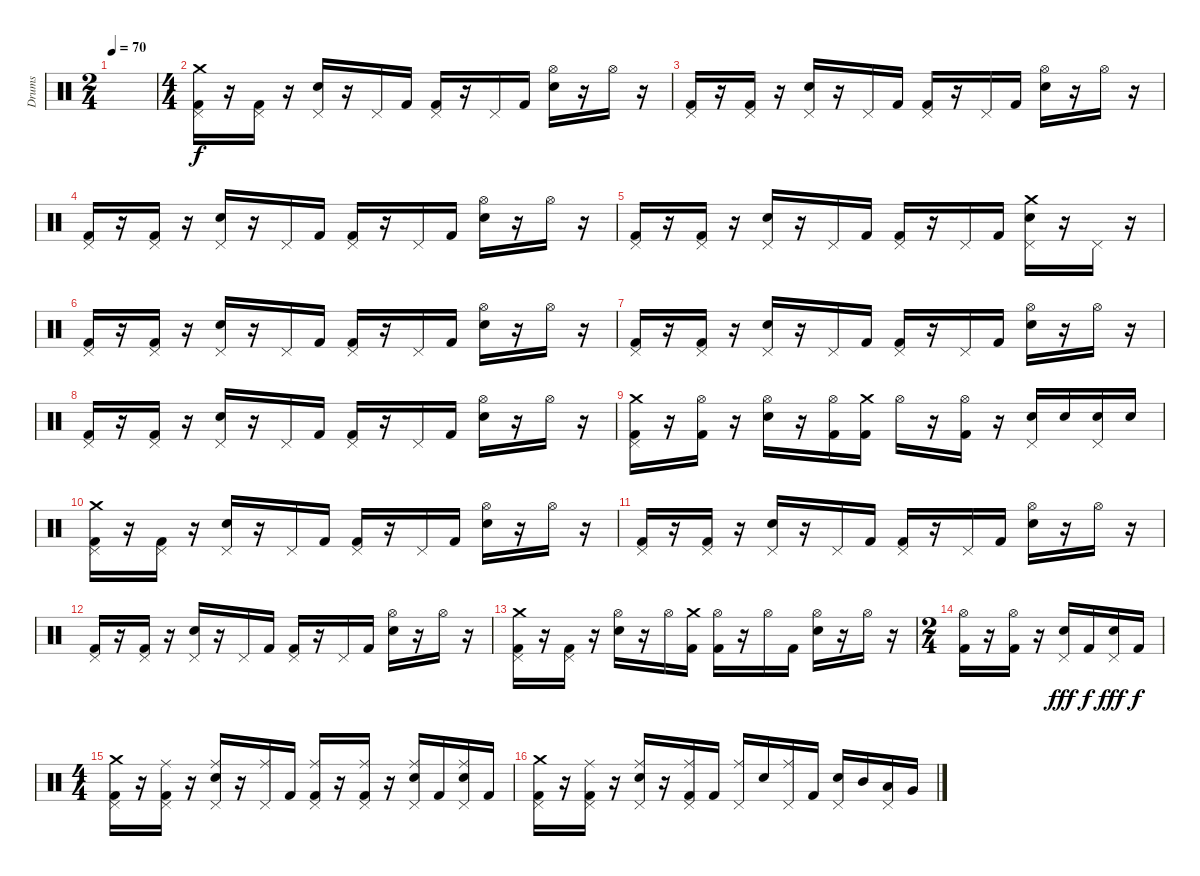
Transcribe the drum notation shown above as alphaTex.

\track ("Drums" "Drums") {instrument percussion}
\staff {score}
\articulation defaults
\ts (2 4)
\tempo 70
\clef neutral
\ks c
|
\ts (4 4)
("Crash medium (hit)" "Pedal Hi-Hat (hit)" "Kick (hit) 2").16 r.16 ("Pedal Hi-Hat (hit)" "Kick (hit) 2").16 r.16 ("Pedal Hi-Hat (hit)" "Snare (hit) 2").16 r.16 "Pedal Hi-Hat (hit)".16 "Kick (hit) 2".16 ("Pedal Hi-Hat (hit)" "Kick (hit) 2").16 r.16 "Pedal Hi-Hat (hit)".16 "Kick (hit) 2".16 ("Hi-Hat (open)" "Snare (hit) 2").16 r.16 "Hi-Hat (open)".16 r.16 |
("Pedal Hi-Hat (hit)" "Kick (hit) 2").16 r.16 ("Pedal Hi-Hat (hit)" "Kick (hit) 2").16 r.16 ("Pedal Hi-Hat (hit)" "Snare (hit) 2").16 r.16 "Pedal Hi-Hat (hit)".16 "Kick (hit) 2".16 ("Pedal Hi-Hat (hit)" "Kick (hit) 2").16 r.16 "Pedal Hi-Hat (hit)".16 "Kick (hit) 2".16 ("Hi-Hat (open)" "Snare (hit) 2").16 r.16 "Hi-Hat (open)".16 r.16 |
("Pedal Hi-Hat (hit)" "Kick (hit) 2").16 r.16 ("Pedal Hi-Hat (hit)" "Kick (hit) 2").16 r.16 ("Pedal Hi-Hat (hit)" "Snare (hit) 2").16 r.16 "Pedal Hi-Hat (hit)".16 "Kick (hit) 2".16 ("Pedal Hi-Hat (hit)" "Kick (hit) 2").16 r.16 "Pedal Hi-Hat (hit)".16 "Kick (hit) 2".16 ("Hi-Hat (open)" "Snare (hit) 2").16 r.16 "Hi-Hat (open)".16 r.16 |
("Pedal Hi-Hat (hit)" "Kick (hit) 2").16 r.16 ("Pedal Hi-Hat (hit)" "Kick (hit) 2").16 r.16 ("Pedal Hi-Hat (hit)" "Snare (hit) 2").16 r.16 "Pedal Hi-Hat (hit)".16 "Kick (hit) 2".16 ("Pedal Hi-Hat (hit)" "Kick (hit) 2").16 r.16 "Pedal Hi-Hat (hit)".16 "Kick (hit) 2".16 ("Crash medium (hit)" "Pedal Hi-Hat (hit)" "Snare (hit) 2").16 r.16 "Pedal Hi-Hat (hit)".16 r.16 |
("Pedal Hi-Hat (hit)" "Kick (hit) 2").16 r.16 ("Pedal Hi-Hat (hit)" "Kick (hit) 2").16 r.16 ("Pedal Hi-Hat (hit)" "Snare (hit) 2").16 r.16 "Pedal Hi-Hat (hit)".16 "Kick (hit) 2".16 ("Pedal Hi-Hat (hit)" "Kick (hit) 2").16 r.16 "Pedal Hi-Hat (hit)".16 "Kick (hit) 2".16 ("Hi-Hat (open)" "Snare (hit) 2").16 r.16 "Hi-Hat (open)".16 r.16 |
("Pedal Hi-Hat (hit)" "Kick (hit) 2").16 r.16 ("Pedal Hi-Hat (hit)" "Kick (hit) 2").16 r.16 ("Pedal Hi-Hat (hit)" "Snare (hit) 2").16 r.16 "Pedal Hi-Hat (hit)".16 "Kick (hit) 2".16 ("Pedal Hi-Hat (hit)" "Kick (hit) 2").16 r.16 "Pedal Hi-Hat (hit)".16 "Kick (hit) 2".16 ("Hi-Hat (open)" "Snare (hit) 2").16 r.16 "Hi-Hat (open)".16 r.16 |
("Pedal Hi-Hat (hit)" "Kick (hit) 2").16 r.16 ("Pedal Hi-Hat (hit)" "Kick (hit) 2").16 r.16 ("Pedal Hi-Hat (hit)" "Snare (hit) 2").16 r.16 "Pedal Hi-Hat (hit)".16 "Kick (hit) 2".16 ("Pedal Hi-Hat (hit)" "Kick (hit) 2").16 r.16 "Pedal Hi-Hat (hit)".16 "Kick (hit) 2".16 ("Hi-Hat (open)" "Snare (hit) 2").16 r.16 "Hi-Hat (open)".16 r.16 |
("Crash medium (hit)" "Pedal Hi-Hat (hit)" "Kick (hit) 2").16 r.16 ("Hi-Hat (open)" "Kick (hit) 2").16 r.16 ("Hi-Hat (open)" "Snare (hit) 2").16 r.16 ("Hi-Hat (open)" "Kick (hit) 2").16 ("Crash medium (hit)" "Kick (hit) 2").16 "Hi-Hat (open)".16 r.16 ("Hi-Hat (open)" "Kick (hit) 2").16 r.16 ("Pedal Hi-Hat (hit)" "Snare (hit) 2").16 "Snare (hit) 2".16 ("Pedal Hi-Hat (hit)" "Snare (hit) 2").16 "Snare (hit) 2".16 |
("Crash medium (hit)" "Pedal Hi-Hat (hit)" "Kick (hit) 2").16 r.16 ("Pedal Hi-Hat (hit)" "Kick (hit) 2").16 r.16 ("Pedal Hi-Hat (hit)" "Snare (hit) 2").16 r.16 "Pedal Hi-Hat (hit)".16 "Kick (hit) 2".16 ("Pedal Hi-Hat (hit)" "Kick (hit) 2").16 r.16 "Pedal Hi-Hat (hit)".16 "Kick (hit) 2".16 ("Hi-Hat (open)" "Snare (hit) 2").16 r.16 "Hi-Hat (open)".16 r.16 |
("Pedal Hi-Hat (hit)" "Kick (hit) 2").16 r.16 ("Pedal Hi-Hat (hit)" "Kick (hit) 2").16 r.16 ("Pedal Hi-Hat (hit)" "Snare (hit) 2").16 r.16 "Pedal Hi-Hat (hit)".16 "Kick (hit) 2".16 ("Pedal Hi-Hat (hit)" "Kick (hit) 2").16 r.16 "Pedal Hi-Hat (hit)".16 "Kick (hit) 2".16 ("Hi-Hat (open)" "Snare (hit) 2").16 r.16 "Hi-Hat (open)".16 r.16 |
("Pedal Hi-Hat (hit)" "Kick (hit) 2").16 r.16 ("Pedal Hi-Hat (hit)" "Kick (hit) 2").16 r.16 ("Pedal Hi-Hat (hit)" "Snare (hit) 2").16 r.16 "Pedal Hi-Hat (hit)".16 "Kick (hit) 2".16 ("Pedal Hi-Hat (hit)" "Kick (hit) 2").16 r.16 "Pedal Hi-Hat (hit)".16 "Kick (hit) 2".16 ("Hi-Hat (open)" "Snare (hit) 2").16 r.16 "Hi-Hat (open)".16 r.16 |
("Crash medium (hit)" "Pedal Hi-Hat (hit)" "Kick (hit) 2").16 r.16 ("Pedal Hi-Hat (hit)" "Kick (hit) 2").16 r.16 ("Hi-Hat (open)" "Snare (hit) 2").16 r.16 "Hi-Hat (open)".16 ("Crash medium (hit)" "Kick (hit) 2").16 ("Hi-Hat (open)" "Kick (hit) 2").16 r.16 "Hi-Hat (open)".16 "Kick (hit) 2".16 ("Hi-Hat (open)" "Snare (hit) 2").16 r.16 "Hi-Hat (open)".16 r.16 |
\ts (2 4)
("Hi-Hat (open)" "Kick (hit) 2").16 r.16 ("Hi-Hat (open)" "Kick (hit) 2").16 r.16 ("Pedal Hi-Hat (hit)" "Snare (hit) 2").16{dy fff} "Kick (hit) 2".16{dy f} ("Pedal Hi-Hat (hit)" "Snare (hit) 2").16{dy fff} "Kick (hit) 2".16{dy f} |
\ts (4 4)
("Crash medium (hit)" "Pedal Hi-Hat (hit)" "Kick (hit) 2").16 r.16 ("Ride (middle)" "Pedal Hi-Hat (hit)" "Kick (hit) 2").16 r.16 ("Ride (middle)" "Pedal Hi-Hat (hit)" "Snare (hit) 2").16 r.16 ("Ride (middle)" "Pedal Hi-Hat (hit)").16 "Kick (hit) 2".16 ("Ride (middle)" "Pedal Hi-Hat (hit)" "Kick (hit) 2").16 r.16 ("Ride (middle)" "Pedal Hi-Hat (hit)" "Kick (hit) 2").16 r.16 ("Ride (middle)" "Pedal Hi-Hat (hit)" "Snare (hit) 2").16 "Kick (hit) 2".16 ("Ride (middle)" "Pedal Hi-Hat (hit)" "Snare (hit) 2").16 "Kick (hit) 2".16 |
("Crash medium (hit)" "Pedal Hi-Hat (hit)" "Kick (hit) 2").16 r.16 ("Ride (middle)" "Pedal Hi-Hat (hit)" "Kick (hit) 2").16 r.16 ("Ride (middle)" "Pedal Hi-Hat (hit)" "Snare (hit) 2").16 r.16 ("Ride (middle)" "Pedal Hi-Hat (hit)" "Kick (hit) 2").16 "Kick (hit) 2".16 ("Ride (middle)" "Pedal Hi-Hat (hit)").16 "Snare (hit) 2".16 ("Ride (middle)" "Pedal Hi-Hat (hit)").16 "Kick (hit) 2".16 ("Pedal Hi-Hat (hit)" "Snare (hit) 2").16 "Mid Tom (hit)".16 ("Pedal Hi-Hat (hit)" "Low Tom (hit)").16 "Very Low Tom (hit)".16
